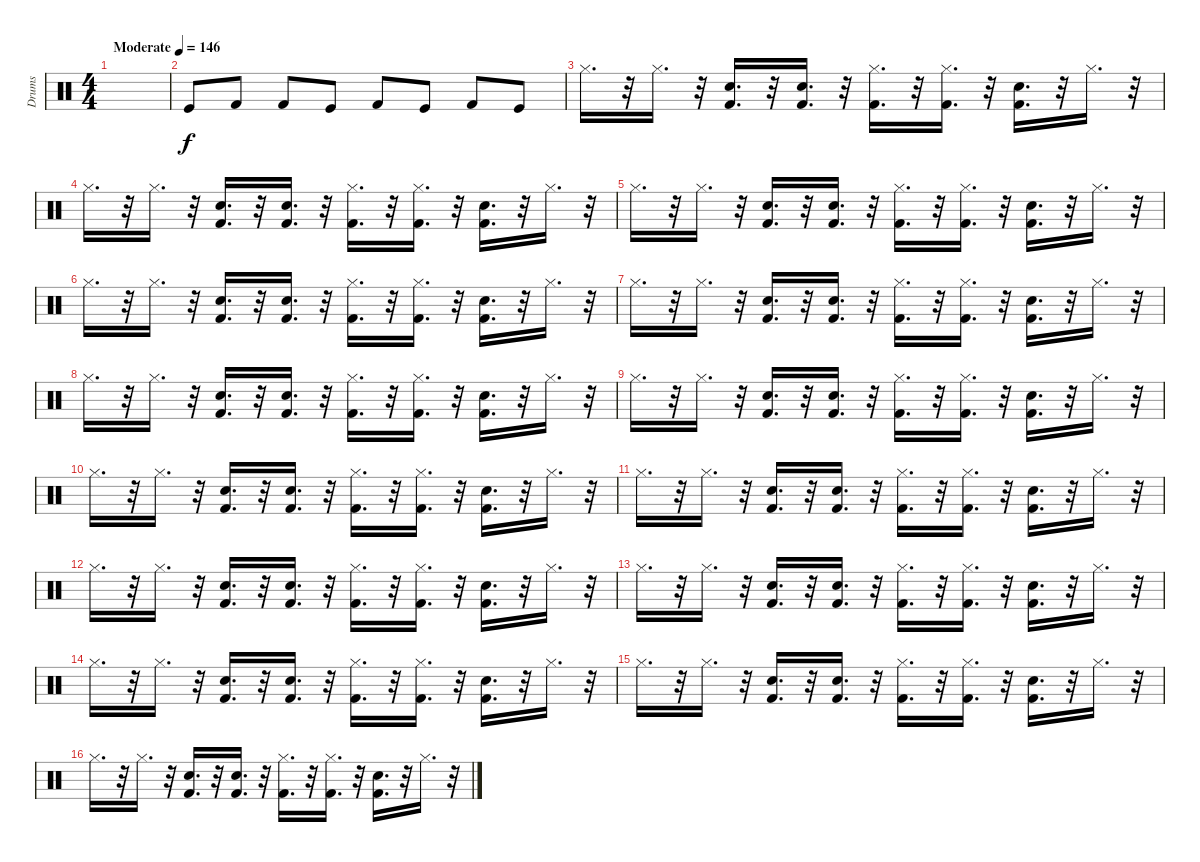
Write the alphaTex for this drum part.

\track ("Drums " "Drums ") {instrument percussion}
\staff {score}
\articulation defaults
\ts (4 4)
\tempo (146 "Moderate")
\clef neutral
\ks c
|
"Kick (hit)".8{volume 9} "Kick (hit) 2".8 "Kick (hit) 2".8 "Kick (hit)".8 "Kick (hit) 2".8 "Kick (hit)".8 "Kick (hit) 2".8 "Kick (hit)".8 |
"Hi-Hat (closed)".16{d volume 10} r.32 "Hi-Hat (closed)".16{d} r.32 ("Snare (hit) 2" "Kick (hit) 2").16{d} r.32 ("Snare (hit) 2" "Kick (hit) 2").16{d} r.32 ("Kick (hit) 2" "Hi-Hat (closed)").16{d} r.32 ("Kick (hit) 2" "Hi-Hat (closed)").16{d} r.32 ("Snare (hit) 2" "Kick (hit) 2").16{d} r.32 "Hi-Hat (closed)".16{d} r.32 |
"Hi-Hat (closed)".16{d} r.32 "Hi-Hat (closed)".16{d} r.32 ("Snare (hit) 2" "Kick (hit) 2").16{d} r.32 ("Snare (hit) 2" "Kick (hit) 2").16{d} r.32 ("Kick (hit) 2" "Hi-Hat (closed)").16{d} r.32 ("Kick (hit) 2" "Hi-Hat (closed)").16{d} r.32 ("Snare (hit) 2" "Kick (hit) 2").16{d} r.32 "Hi-Hat (closed)".16{d} r.32 |
"Hi-Hat (closed)".16{d} r.32 "Hi-Hat (closed)".16{d} r.32 ("Snare (hit) 2" "Kick (hit) 2").16{d} r.32 ("Snare (hit) 2" "Kick (hit) 2").16{d} r.32 ("Kick (hit) 2" "Hi-Hat (closed)").16{d} r.32 ("Kick (hit) 2" "Hi-Hat (closed)").16{d} r.32 ("Snare (hit) 2" "Kick (hit) 2").16{d} r.32 "Hi-Hat (closed)".16{d} r.32 |
"Hi-Hat (closed)".16{d} r.32 "Hi-Hat (closed)".16{d} r.32 ("Snare (hit) 2" "Kick (hit) 2").16{d} r.32 ("Snare (hit) 2" "Kick (hit) 2").16{d} r.32 ("Kick (hit) 2" "Hi-Hat (closed)").16{d} r.32 ("Kick (hit) 2" "Hi-Hat (closed)").16{d} r.32 ("Snare (hit) 2" "Kick (hit) 2").16{d} r.32 "Hi-Hat (closed)".16{d} r.32 |
"Hi-Hat (closed)".16{d} r.32 "Hi-Hat (closed)".16{d} r.32 ("Snare (hit) 2" "Kick (hit) 2").16{d} r.32 ("Snare (hit) 2" "Kick (hit) 2").16{d} r.32 ("Kick (hit) 2" "Hi-Hat (closed)").16{d} r.32 ("Kick (hit) 2" "Hi-Hat (closed)").16{d} r.32 ("Snare (hit) 2" "Kick (hit) 2").16{d} r.32 "Hi-Hat (closed)".16{d} r.32 |
"Hi-Hat (closed)".16{d} r.32 "Hi-Hat (closed)".16{d} r.32 ("Snare (hit) 2" "Kick (hit) 2").16{d} r.32 ("Snare (hit) 2" "Kick (hit) 2").16{d} r.32 ("Kick (hit) 2" "Hi-Hat (closed)").16{d} r.32 ("Kick (hit) 2" "Hi-Hat (closed)").16{d} r.32 ("Snare (hit) 2" "Kick (hit) 2").16{d} r.32 "Hi-Hat (closed)".16{d} r.32 |
"Hi-Hat (closed)".16{d} r.32 "Hi-Hat (closed)".16{d} r.32 ("Snare (hit) 2" "Kick (hit) 2").16{d} r.32 ("Snare (hit) 2" "Kick (hit) 2").16{d} r.32 ("Kick (hit) 2" "Hi-Hat (closed)").16{d} r.32 ("Kick (hit) 2" "Hi-Hat (closed)").16{d} r.32 ("Snare (hit) 2" "Kick (hit) 2").16{d} r.32 "Hi-Hat (closed)".16{d} r.32 |
"Hi-Hat (closed)".16{d} r.32 "Hi-Hat (closed)".16{d} r.32 ("Snare (hit) 2" "Kick (hit) 2").16{d} r.32 ("Snare (hit) 2" "Kick (hit) 2").16{d} r.32 ("Kick (hit) 2" "Hi-Hat (closed)").16{d} r.32 ("Kick (hit) 2" "Hi-Hat (closed)").16{d} r.32 ("Snare (hit) 2" "Kick (hit) 2").16{d} r.32 "Hi-Hat (closed)".16{d} r.32 |
"Hi-Hat (closed)".16{d} r.32 "Hi-Hat (closed)".16{d} r.32 ("Snare (hit) 2" "Kick (hit) 2").16{d} r.32 ("Snare (hit) 2" "Kick (hit) 2").16{d} r.32 ("Kick (hit) 2" "Hi-Hat (closed)").16{d} r.32 ("Kick (hit) 2" "Hi-Hat (closed)").16{d} r.32 ("Snare (hit) 2" "Kick (hit) 2").16{d} r.32 "Hi-Hat (closed)".16{d} r.32 |
"Hi-Hat (closed)".16{d} r.32 "Hi-Hat (closed)".16{d} r.32 ("Snare (hit) 2" "Kick (hit) 2").16{d} r.32 ("Snare (hit) 2" "Kick (hit) 2").16{d} r.32 ("Kick (hit) 2" "Hi-Hat (closed)").16{d} r.32 ("Kick (hit) 2" "Hi-Hat (closed)").16{d} r.32 ("Snare (hit) 2" "Kick (hit) 2").16{d} r.32 "Hi-Hat (closed)".16{d} r.32 |
"Hi-Hat (closed)".16{d} r.32 "Hi-Hat (closed)".16{d} r.32 ("Snare (hit) 2" "Kick (hit) 2").16{d} r.32 ("Snare (hit) 2" "Kick (hit) 2").16{d} r.32 ("Kick (hit) 2" "Hi-Hat (closed)").16{d} r.32 ("Kick (hit) 2" "Hi-Hat (closed)").16{d} r.32 ("Snare (hit) 2" "Kick (hit) 2").16{d} r.32 "Hi-Hat (closed)".16{d} r.32 |
"Hi-Hat (closed)".16{d} r.32 "Hi-Hat (closed)".16{d} r.32 ("Snare (hit) 2" "Kick (hit) 2").16{d} r.32 ("Snare (hit) 2" "Kick (hit) 2").16{d} r.32 ("Kick (hit) 2" "Hi-Hat (closed)").16{d} r.32 ("Kick (hit) 2" "Hi-Hat (closed)").16{d} r.32 ("Snare (hit) 2" "Kick (hit) 2").16{d} r.32 "Hi-Hat (closed)".16{d} r.32 |
"Hi-Hat (closed)".16{d} r.32 "Hi-Hat (closed)".16{d} r.32 ("Snare (hit) 2" "Kick (hit) 2").16{d} r.32 ("Snare (hit) 2" "Kick (hit) 2").16{d} r.32 ("Kick (hit) 2" "Hi-Hat (closed)").16{d} r.32 ("Kick (hit) 2" "Hi-Hat (closed)").16{d} r.32 ("Snare (hit) 2" "Kick (hit) 2").16{d} r.32 "Hi-Hat (closed)".16{d} r.32 |
"Hi-Hat (closed)".16{d} r.32 "Hi-Hat (closed)".16{d} r.32 ("Snare (hit) 2" "Kick (hit) 2").16{d} r.32 ("Snare (hit) 2" "Kick (hit) 2").16{d} r.32 ("Kick (hit) 2" "Hi-Hat (closed)").16{d} r.32 ("Kick (hit) 2" "Hi-Hat (closed)").16{d} r.32 ("Snare (hit) 2" "Kick (hit) 2").16{d} r.32 "Hi-Hat (closed)".16{d} r.32
